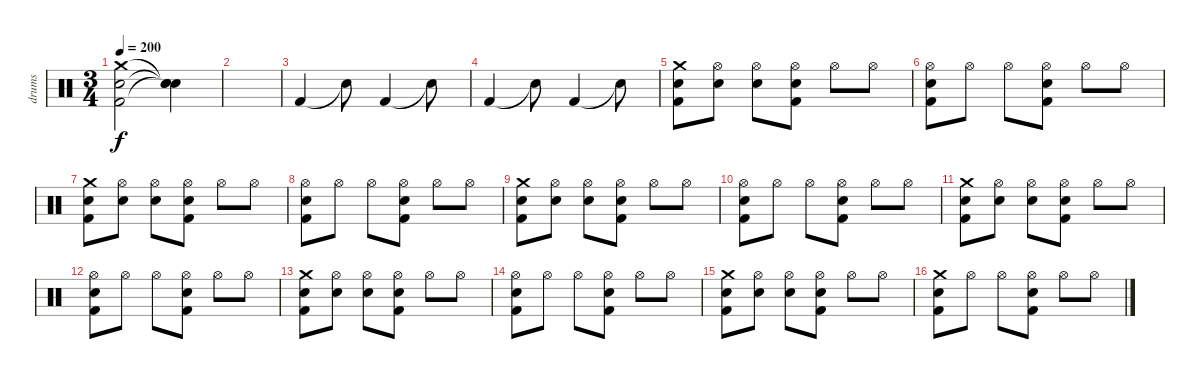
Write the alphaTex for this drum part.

\track ("drums" "drums") {instrument percussion}
\staff {score}
\articulation defaults
\ts (3 4)
\tempo 200
\clef neutral
\ks c
("Crash medium (hit)" "Snare (hit) 2" "Kick (hit) 2").2{dy f} ("Snare (hit)"{t} "Snare (hit)"{t} "Snare (hit)"{t}).4 |
|
"Kick (hit) 2".4 "Snare (hit)"{t}.8 "Kick (hit) 2".4 "Snare (hit)"{t}.8 |
"Kick (hit) 2".4 "Snare (hit)"{t}.8 "Kick (hit) 2".4 "Snare (hit)"{t}.8 |
("Crash medium (hit)" "Snare (hit) 2" "Kick (hit) 2").8 ("Hi-Hat (open)" "Snare (hit) 2").8 ("Hi-Hat (open)" "Snare (hit) 2").8 ("Hi-Hat (open)" "Snare (hit) 2" "Kick (hit) 2").8 "Hi-Hat (open)".8 "Hi-Hat (open)".8 |
("Hi-Hat (open)" "Snare (hit) 2" "Kick (hit) 2").8 "Hi-Hat (open)".8 "Hi-Hat (open)".8 ("Hi-Hat (open)" "Snare (hit) 2" "Kick (hit) 2").8 "Hi-Hat (open)".8 "Hi-Hat (open)".8 |
("Crash medium (hit)" "Snare (hit) 2" "Kick (hit) 2").8 ("Hi-Hat (open)" "Snare (hit) 2").8 ("Hi-Hat (open)" "Snare (hit) 2").8 ("Hi-Hat (open)" "Snare (hit) 2" "Kick (hit) 2").8 "Hi-Hat (open)".8 "Hi-Hat (open)".8 |
("Hi-Hat (open)" "Snare (hit) 2" "Kick (hit) 2").8 "Hi-Hat (open)".8 "Hi-Hat (open)".8 ("Hi-Hat (open)" "Snare (hit) 2" "Kick (hit) 2").8 "Hi-Hat (open)".8 "Hi-Hat (open)".8 |
("Crash medium (hit)" "Snare (hit) 2" "Kick (hit) 2").8 ("Hi-Hat (open)" "Snare (hit) 2").8 ("Hi-Hat (open)" "Snare (hit) 2").8 ("Hi-Hat (open)" "Snare (hit) 2" "Kick (hit) 2").8 "Hi-Hat (open)".8 "Hi-Hat (open)".8 |
("Hi-Hat (open)" "Snare (hit) 2" "Kick (hit) 2").8 "Hi-Hat (open)".8 "Hi-Hat (open)".8 ("Hi-Hat (open)" "Snare (hit) 2" "Kick (hit) 2").8 "Hi-Hat (open)".8 "Hi-Hat (open)".8 |
("Crash medium (hit)" "Snare (hit) 2" "Kick (hit) 2").8 ("Hi-Hat (open)" "Snare (hit) 2").8 ("Hi-Hat (open)" "Snare (hit) 2").8 ("Hi-Hat (open)" "Snare (hit) 2" "Kick (hit) 2").8 "Hi-Hat (open)".8 "Hi-Hat (open)".8 |
("Hi-Hat (open)" "Snare (hit) 2" "Kick (hit) 2").8 "Hi-Hat (open)".8 "Hi-Hat (open)".8 ("Hi-Hat (open)" "Snare (hit) 2" "Kick (hit) 2").8 "Hi-Hat (open)".8 "Hi-Hat (open)".8 |
("Crash medium (hit)" "Snare (hit) 2" "Kick (hit) 2").8 ("Hi-Hat (open)" "Snare (hit) 2").8 ("Hi-Hat (open)" "Snare (hit) 2").8 ("Hi-Hat (open)" "Snare (hit) 2" "Kick (hit) 2").8 "Hi-Hat (open)".8 "Hi-Hat (open)".8 |
("Hi-Hat (open)" "Snare (hit) 2" "Kick (hit) 2").8 "Hi-Hat (open)".8 "Hi-Hat (open)".8 ("Hi-Hat (open)" "Snare (hit) 2" "Kick (hit) 2").8 "Hi-Hat (open)".8 "Hi-Hat (open)".8 |
("Crash medium (hit)" "Snare (hit) 2" "Kick (hit) 2").8 ("Hi-Hat (open)" "Snare (hit) 2").8 ("Hi-Hat (open)" "Snare (hit) 2").8 ("Hi-Hat (open)" "Snare (hit) 2" "Kick (hit) 2").8 "Hi-Hat (open)".8 "Hi-Hat (open)".8 |
("Crash medium (hit)" "Snare (hit) 2" "Kick (hit) 2").8 "Hi-Hat (open)".8 "Hi-Hat (open)".8 ("Hi-Hat (open)" "Snare (hit) 2" "Kick (hit) 2").8 "Hi-Hat (open)".8 "Hi-Hat (open)".8
